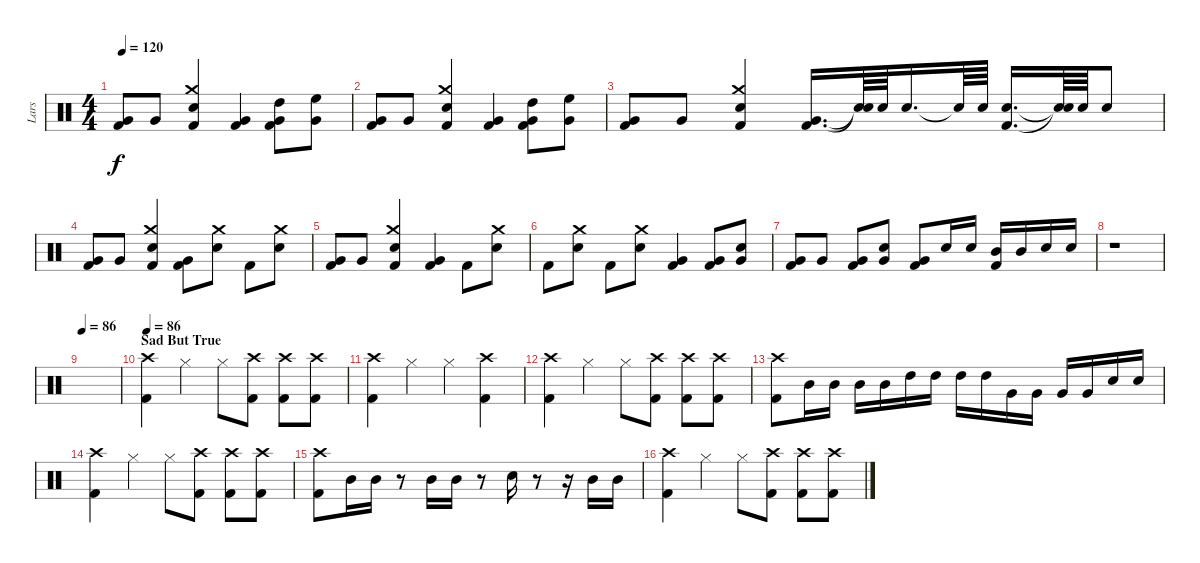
\track ("Lars" "Lars") {instrument percussion}
\staff {score}
\articulation defaults
\ts (4 4)
\tempo 120
\clef neutral
\ks c
("Very Low Tom (hit)" "Kick (hit) 2").8{dy f} "Very Low Tom (hit)".8 ("Crash medium (hit)" "Snare (hit) 2" "Kick (hit) 2").4 ("Very Low Tom (hit)" "Kick (hit) 2").4 ("High Tom (hit)" "Very Low Tom (hit)" "Kick (hit) 2").8 ("High Floor Tom (hit)" "Very Low Tom (hit)").8 |
("Very Low Tom (hit)" "Kick (hit) 2").8 "Very Low Tom (hit)".8 ("Crash medium (hit)" "Snare (hit) 2" "Kick (hit) 2").4 ("Very Low Tom (hit)" "Kick (hit) 2").4 ("High Tom (hit)" "Very Low Tom (hit)" "Kick (hit) 2").8 ("High Floor Tom (hit)" "Very Low Tom (hit)").8 |
("Very Low Tom (hit)" "Kick (hit) 2").8 "Very Low Tom (hit)".8 ("Crash medium (hit)" "Snare (hit) 2" "Kick (hit) 2").4 ("Very Low Tom (hit)" "Kick (hit) 2").16{d} ("Snare (hit)"{t} "Snare (hit)"{t}).64 "Snare (hit) 2".64 "Snare (hit) 2".16{d} "Snare (hit)"{t}.64 "Snare (hit) 2".64 ("Snare (hit) 2" "Kick (hit) 2").16{d} ("Snare (hit)"{t} "Snare (hit)"{t}).64 "Snare (hit) 2".64 "Snare (hit) 2".8 |
("Very Low Tom (hit)" "Kick (hit) 2").8 "Very Low Tom (hit)".8 ("Snare (hit) 2" "Crash medium (hit)" "Kick (hit) 2").4 ("Very Low Tom (hit)" "Kick (hit) 2").8 ("Crash medium (hit)" "Snare (hit) 2").8 "Kick (hit) 2".8 ("Crash medium (hit)" "Snare (hit) 2").8 |
("Very Low Tom (hit)" "Kick (hit) 2").8 "Very Low Tom (hit)".8 ("Crash medium (hit)" "Snare (hit) 2" "Kick (hit) 2").4 ("Very Low Tom (hit)" "Kick (hit) 2").4 "Kick (hit) 2".8 ("Crash medium (hit)" "Snare (hit) 2").8 |
"Kick (hit) 2".8 ("Snare (hit) 2" "Crash medium (hit)").8 "Kick (hit) 2".8 ("Snare (hit) 2" "Crash medium (hit)").8 ("Very Low Tom (hit)" "Kick (hit) 2").4 ("Very Low Tom (hit)" "Kick (hit) 2").8 ("Snare (hit) 2" "Very Low Tom (hit)").8 |
("Very Low Tom (hit)" "Kick (hit) 2").8 "Very Low Tom (hit)".8 ("Very Low Tom (hit)" "Kick (hit) 2").8 ("Snare (hit) 2" "Very Low Tom (hit)").8 ("Very Low Tom (hit)" "Kick (hit) 2").8 "Snare (hit) 2".16 "Snare (hit) 2".16 ("Mid Tom (hit)" "Kick (hit) 2").16 "Mid Tom (hit)".16 "Snare (hit) 2".16 "Snare (hit) 2".16 |
r.1 |
\tempo 86
|
\section ("" "Sad But True")
\tempo 86
("Crash high (hit)" "Kick (hit) 2").4 "Hi-Hat (closed)".4 "Hi-Hat (closed)".8 ("Crash high (hit)" "Kick (hit) 2").8 ("Crash high (hit)" "Kick (hit) 2").8 ("Crash high (hit)" "Kick (hit) 2").8 |
("Crash high (hit)" "Kick (hit) 2").4 "Hi-Hat (closed)".4 "Hi-Hat (closed)".4 ("Crash high (hit)" "Kick (hit) 2").4 |
("Crash high (hit)" "Kick (hit) 2").4 "Hi-Hat (closed)".4 "Hi-Hat (closed)".8 ("Crash high (hit)" "Kick (hit) 2").8 ("Crash high (hit)" "Kick (hit) 2").8 ("Crash high (hit)" "Kick (hit) 2").8 |
("Crash high (hit)" "Kick (hit) 2").8 "Mid Tom (hit)".16 "Mid Tom (hit)".16 "Mid Tom (hit)".16 "Mid Tom (hit)".16 "High Tom (hit)".16 "High Tom (hit)".16 "High Tom (hit)".16 "High Tom (hit)".16 "Very Low Tom (hit)".16 "Very Low Tom (hit)".16 "Very Low Tom (hit)".16 "Very Low Tom (hit)".16 "Electric Snare (hit)".16 "Electric Snare (hit)".16 |
("Crash high (hit)" "Kick (hit) 2").4 "Hi-Hat (closed)".4 "Hi-Hat (closed)".8 ("Crash high (hit)" "Kick (hit) 2").8 ("Crash high (hit)" "Kick (hit) 2").8 ("Crash high (hit)" "Kick (hit) 2").8 |
("Crash high (hit)" "Kick (hit) 2").8 "Mid Tom (hit)".16 "Mid Tom (hit)".16 r.8 "Mid Tom (hit)".16 "Mid Tom (hit)".16 r.8 "Electric Snare (hit)".16 r.8 r.16 "Mid Tom (hit)".16 "Mid Tom (hit)".16 |
("Crash high (hit)" "Kick (hit) 2").4 "Hi-Hat (closed)".4 "Hi-Hat (closed)".8 ("Crash high (hit)" "Kick (hit) 2").8 ("Crash high (hit)" "Kick (hit) 2").8 ("Crash high (hit)" "Kick (hit) 2").8
